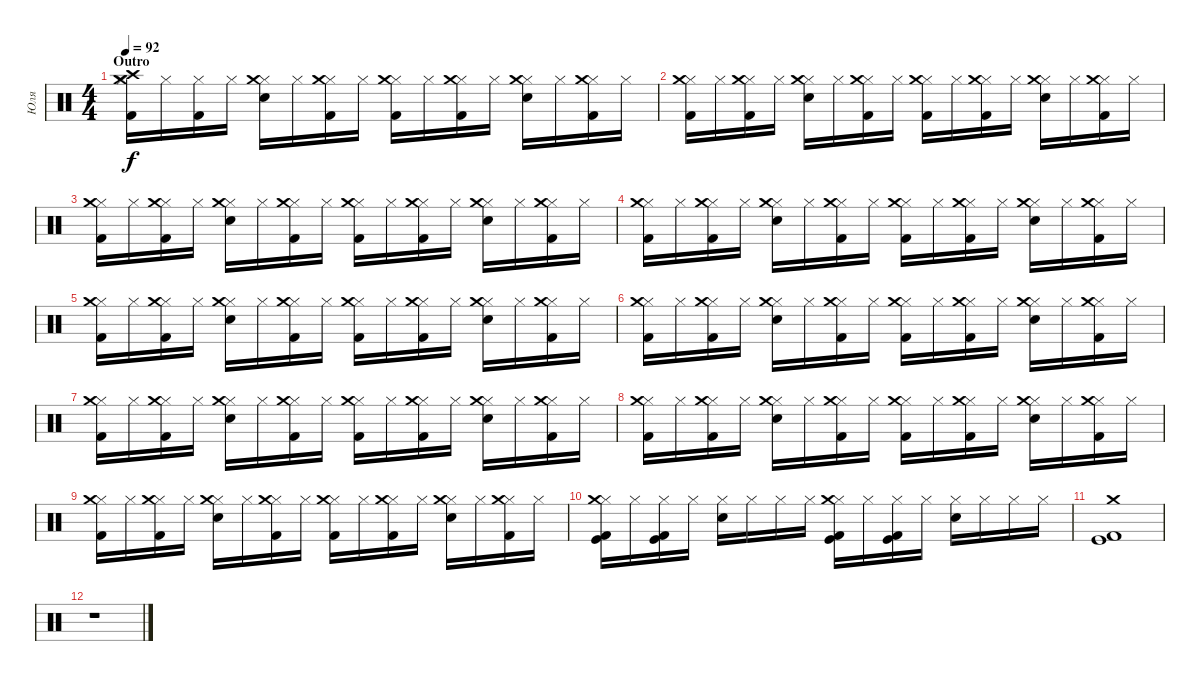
\track ("Юля" "Юля") {instrument percussion}
\staff {score}
\articulation defaults
\ts (4 4)
\section ("" "Outro")
\tempo 92
\clef neutral
\ks c
("Hi-Hat (closed)" "Crash medium (hit)" "Crash high (hit)" "Kick (hit) 2").16{dy f} "Hi-Hat (closed)".16 ("Hi-Hat (closed)" "Kick (hit) 2").16 "Hi-Hat (closed)".16 ("Hi-Hat (closed)" "Crash medium (hit)" "Snare (hit) 2").16 "Hi-Hat (closed)".16 ("Hi-Hat (closed)" "Crash medium (hit)" "Kick (hit) 2").16 "Hi-Hat (closed)".16 ("Hi-Hat (closed)" "Crash medium (hit)" "Kick (hit) 2").16 "Hi-Hat (closed)".16 ("Hi-Hat (closed)" "Crash medium (hit)" "Kick (hit) 2").16 "Hi-Hat (closed)".16 ("Hi-Hat (closed)" "Crash medium (hit)" "Snare (hit) 2").16 "Hi-Hat (closed)".16 ("Hi-Hat (closed)" "Crash medium (hit)" "Kick (hit) 2").16 "Hi-Hat (closed)".16 |
("Hi-Hat (closed)" "Crash medium (hit)" "Kick (hit) 2").16 "Hi-Hat (closed)".16 ("Hi-Hat (closed)" "Crash medium (hit)" "Kick (hit) 2").16 "Hi-Hat (closed)".16 ("Hi-Hat (closed)" "Crash medium (hit)" "Snare (hit) 2").16 "Hi-Hat (closed)".16 ("Hi-Hat (closed)" "Crash medium (hit)" "Kick (hit) 2").16 "Hi-Hat (closed)".16 ("Hi-Hat (closed)" "Crash medium (hit)" "Kick (hit) 2").16 "Hi-Hat (closed)".16 ("Hi-Hat (closed)" "Crash medium (hit)" "Kick (hit) 2").16 "Hi-Hat (closed)".16 ("Hi-Hat (closed)" "Crash medium (hit)" "Snare (hit) 2").16 "Hi-Hat (closed)".16 ("Hi-Hat (closed)" "Crash medium (hit)" "Kick (hit) 2").16 "Hi-Hat (closed)".16 |
("Hi-Hat (closed)" "Crash medium (hit)" "Kick (hit) 2").16 "Hi-Hat (closed)".16 ("Hi-Hat (closed)" "Crash medium (hit)" "Kick (hit) 2").16 "Hi-Hat (closed)".16 ("Hi-Hat (closed)" "Crash medium (hit)" "Snare (hit) 2").16 "Hi-Hat (closed)".16 ("Hi-Hat (closed)" "Crash medium (hit)" "Kick (hit) 2").16 "Hi-Hat (closed)".16 ("Hi-Hat (closed)" "Crash medium (hit)" "Kick (hit) 2").16 "Hi-Hat (closed)".16 ("Hi-Hat (closed)" "Crash medium (hit)" "Kick (hit) 2").16 "Hi-Hat (closed)".16 ("Hi-Hat (closed)" "Crash medium (hit)" "Snare (hit) 2").16 "Hi-Hat (closed)".16 ("Hi-Hat (closed)" "Crash medium (hit)" "Kick (hit) 2").16 "Hi-Hat (closed)".16 |
("Hi-Hat (closed)" "Crash medium (hit)" "Kick (hit) 2").16 "Hi-Hat (closed)".16 ("Hi-Hat (closed)" "Crash medium (hit)" "Kick (hit) 2").16 "Hi-Hat (closed)".16 ("Hi-Hat (closed)" "Crash medium (hit)" "Snare (hit) 2").16 "Hi-Hat (closed)".16 ("Hi-Hat (closed)" "Crash medium (hit)" "Kick (hit) 2").16 "Hi-Hat (closed)".16 ("Hi-Hat (closed)" "Crash medium (hit)" "Kick (hit) 2").16 "Hi-Hat (closed)".16 ("Hi-Hat (closed)" "Crash medium (hit)" "Kick (hit) 2").16 "Hi-Hat (closed)".16 ("Hi-Hat (closed)" "Crash medium (hit)" "Snare (hit) 2").16 "Hi-Hat (closed)".16 ("Hi-Hat (closed)" "Crash medium (hit)" "Kick (hit) 2").16 "Hi-Hat (closed)".16 |
("Hi-Hat (closed)" "Crash medium (hit)" "Kick (hit) 2").16 "Hi-Hat (closed)".16 ("Hi-Hat (closed)" "Crash medium (hit)" "Kick (hit) 2").16 "Hi-Hat (closed)".16 ("Hi-Hat (closed)" "Crash medium (hit)" "Snare (hit) 2").16 "Hi-Hat (closed)".16 ("Hi-Hat (closed)" "Crash medium (hit)" "Kick (hit) 2").16 "Hi-Hat (closed)".16 ("Hi-Hat (closed)" "Crash medium (hit)" "Kick (hit) 2").16 "Hi-Hat (closed)".16 ("Hi-Hat (closed)" "Crash medium (hit)" "Kick (hit) 2").16 "Hi-Hat (closed)".16 ("Hi-Hat (closed)" "Crash medium (hit)" "Snare (hit) 2").16 "Hi-Hat (closed)".16 ("Hi-Hat (closed)" "Crash medium (hit)" "Kick (hit) 2").16 "Hi-Hat (closed)".16 |
("Hi-Hat (closed)" "Crash medium (hit)" "Kick (hit) 2").16 "Hi-Hat (closed)".16 ("Hi-Hat (closed)" "Crash medium (hit)" "Kick (hit) 2").16 "Hi-Hat (closed)".16 ("Hi-Hat (closed)" "Crash medium (hit)" "Snare (hit) 2").16 "Hi-Hat (closed)".16 ("Hi-Hat (closed)" "Crash medium (hit)" "Kick (hit) 2").16 "Hi-Hat (closed)".16 ("Hi-Hat (closed)" "Crash medium (hit)" "Kick (hit) 2").16 "Hi-Hat (closed)".16 ("Hi-Hat (closed)" "Crash medium (hit)" "Kick (hit) 2").16 "Hi-Hat (closed)".16 ("Hi-Hat (closed)" "Crash medium (hit)" "Snare (hit) 2").16 "Hi-Hat (closed)".16 ("Hi-Hat (closed)" "Crash medium (hit)" "Kick (hit) 2").16 "Hi-Hat (closed)".16 |
("Hi-Hat (closed)" "Crash medium (hit)" "Kick (hit) 2").16 "Hi-Hat (closed)".16 ("Hi-Hat (closed)" "Crash medium (hit)" "Kick (hit) 2").16 "Hi-Hat (closed)".16 ("Hi-Hat (closed)" "Crash medium (hit)" "Snare (hit) 2").16 "Hi-Hat (closed)".16 ("Hi-Hat (closed)" "Crash medium (hit)" "Kick (hit) 2").16 "Hi-Hat (closed)".16 ("Hi-Hat (closed)" "Crash medium (hit)" "Kick (hit) 2").16 "Hi-Hat (closed)".16 ("Hi-Hat (closed)" "Crash medium (hit)" "Kick (hit) 2").16 "Hi-Hat (closed)".16 ("Hi-Hat (closed)" "Crash medium (hit)" "Snare (hit) 2").16 "Hi-Hat (closed)".16 ("Hi-Hat (closed)" "Crash medium (hit)" "Kick (hit) 2").16 "Hi-Hat (closed)".16 |
("Hi-Hat (closed)" "Crash medium (hit)" "Kick (hit) 2").16 "Hi-Hat (closed)".16 ("Hi-Hat (closed)" "Crash medium (hit)" "Kick (hit) 2").16 "Hi-Hat (closed)".16 ("Hi-Hat (closed)" "Crash medium (hit)" "Snare (hit) 2").16 "Hi-Hat (closed)".16 ("Hi-Hat (closed)" "Crash medium (hit)" "Kick (hit) 2").16 "Hi-Hat (closed)".16 ("Hi-Hat (closed)" "Crash medium (hit)" "Kick (hit) 2").16 "Hi-Hat (closed)".16 ("Hi-Hat (closed)" "Crash medium (hit)" "Kick (hit) 2").16 "Hi-Hat (closed)".16 ("Hi-Hat (closed)" "Crash medium (hit)" "Snare (hit) 2").16 "Hi-Hat (closed)".16 ("Hi-Hat (closed)" "Crash medium (hit)" "Kick (hit) 2").16 "Hi-Hat (closed)".16 |
("Hi-Hat (closed)" "Crash medium (hit)" "Kick (hit) 2").16 "Hi-Hat (closed)".16 ("Hi-Hat (closed)" "Crash medium (hit)" "Kick (hit) 2").16 "Hi-Hat (closed)".16 ("Hi-Hat (closed)" "Crash medium (hit)" "Snare (hit) 2").16 "Hi-Hat (closed)".16 ("Hi-Hat (closed)" "Crash medium (hit)" "Kick (hit) 2").16 "Hi-Hat (closed)".16 ("Hi-Hat (closed)" "Crash medium (hit)" "Kick (hit) 2").16 "Hi-Hat (closed)".16 ("Hi-Hat (closed)" "Crash medium (hit)" "Kick (hit) 2").16 "Hi-Hat (closed)".16 ("Hi-Hat (closed)" "Crash medium (hit)" "Snare (hit) 2").16 "Hi-Hat (closed)".16 ("Hi-Hat (closed)" "Crash medium (hit)" "Kick (hit) 2").16 "Hi-Hat (closed)".16 |
("Hi-Hat (closed)" "Crash medium (hit)" "Kick (hit)" "Kick (hit) 2").16 "Hi-Hat (closed)".16 ("Hi-Hat (closed)" "Kick (hit)" "Kick (hit) 2").16 "Hi-Hat (closed)".16 ("Hi-Hat (closed)" "Snare (hit) 2").16 "Hi-Hat (closed)".16 "Hi-Hat (closed)".16 "Hi-Hat (closed)".16 ("Hi-Hat (closed)" "Crash medium (hit)" "Kick (hit)" "Kick (hit) 2").16 "Hi-Hat (closed)".16 ("Hi-Hat (closed)" "Kick (hit)" "Kick (hit) 2").16 "Hi-Hat (closed)".16 ("Hi-Hat (closed)" "Snare (hit) 2").16 "Hi-Hat (closed)".16 "Hi-Hat (closed)".16 "Hi-Hat (closed)".16 |
("Crash medium (hit)" "Kick (hit)" "Kick (hit) 2").1 |
r.1
